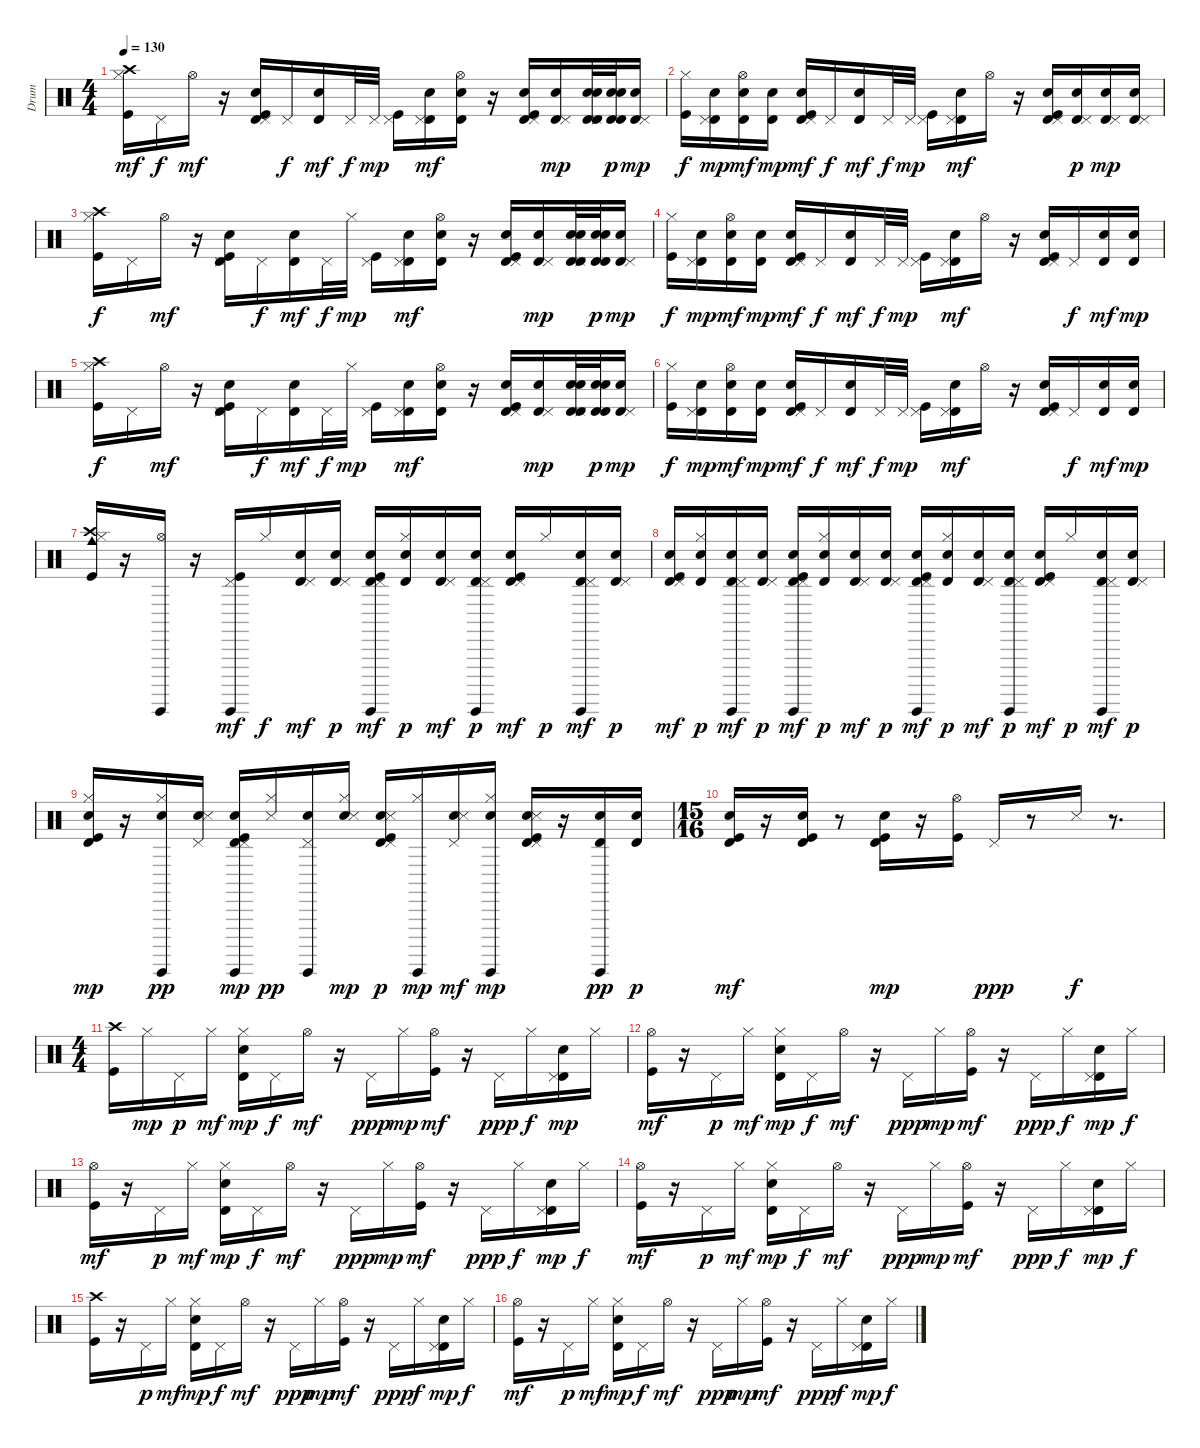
\track ("Drum" "Drum") {instrument percussion}
\staff {score}
\articulation defaults
\ts (4 4)
\tempo 130
\clef neutral
\ks c
("Crash high (hit)" "Hi-Hat (closed)" "Kick (hit)").16{dy mf} "Pedal Hi-Hat (hit)".16{dy f} "Hi-Hat (open)".16{dy mf} r.16 ("Timbale high (hit)" "Electric Snare (hit)" "Pedal Hi-Hat (hit)" "Kick (hit)").16 "Pedal Hi-Hat (hit)".16{dy f} ("Timbale high (hit)" "Electric Snare (hit)").16{dy mf} "Pedal Hi-Hat (hit)".32{dy f} "Pedal Hi-Hat (hit)".32{dy mp} ("Pedal Hi-Hat (hit)" "Kick (hit)").16 ("Timbale high (hit)" "Electric Snare (hit)" "Pedal Hi-Hat (hit)").16{dy mf} ("Timbale high (hit)" "Electric Snare (hit)" "Hi-Hat (open)").16 r.16 ("Timbale high (hit)" "Electric Snare (hit)" "Pedal Hi-Hat (hit)" "Kick (hit)").16 ("Timbale high (hit)" "Electric Snare (hit)" "Pedal Hi-Hat (hit)").16{dy mp} ("Timbale high (hit)" "Electric Snare (hit)" "Pedal Hi-Hat (hit)" "Timbale high (hit)" "Electric Snare (hit)").32 ("Timbale high (hit)" "Electric Snare (hit)" "Timbale high (hit)" "Electric Snare (hit)").32{dy p} ("Timbale high (hit)" "Electric Snare (hit)" "Pedal Hi-Hat (hit)").16{dy mp} |
("Hi-Hat (closed)" "Kick (hit)").16{dy f} ("Timbale high (hit)" "Electric Snare (hit)" "Pedal Hi-Hat (hit)").16{dy mp} ("Timbale high (hit)" "Electric Snare (hit)" "Hi-Hat (open)").16{dy mf} ("Timbale high (hit)" "Electric Snare (hit)").16{dy mp} ("Timbale high (hit)" "Electric Snare (hit)" "Pedal Hi-Hat (hit)" "Kick (hit)").16{dy mf} "Pedal Hi-Hat (hit)".16{dy f} ("Timbale high (hit)" "Electric Snare (hit)").16{dy mf} "Pedal Hi-Hat (hit)".32{dy f} "Pedal Hi-Hat (hit)".32{dy mp} ("Pedal Hi-Hat (hit)" "Kick (hit)").16 ("Timbale high (hit)" "Electric Snare (hit)" "Pedal Hi-Hat (hit)").16{dy mf} "Hi-Hat (open)".16 r.16 ("Timbale high (hit)" "Electric Snare (hit)" "Pedal Hi-Hat (hit)" "Kick (hit)").16 ("Timbale high (hit)" "Electric Snare (hit)" "Pedal Hi-Hat (hit)").16{dy p} ("Timbale high (hit)" "Electric Snare (hit)" "Pedal Hi-Hat (hit)").16{dy mp} ("Timbale high (hit)" "Electric Snare (hit)" "Pedal Hi-Hat (hit)").16 |
("Crash high (hit)" "Hi-Hat (closed)" "Kick (hit)").16{dy f} "Pedal Hi-Hat (hit)".16 "Hi-Hat (open)".16{dy mf} r.16 ("Timbale high (hit)" "Electric Snare (hit)" "Pedal Hi-Hat (hit)" "Kick (hit)").16 "Pedal Hi-Hat (hit)".16{dy f} ("Timbale high (hit)" "Electric Snare (hit)").16{dy mf} "Pedal Hi-Hat (hit)".32{dy f} "Hi-Hat (closed)".32{dy mp} ("Pedal Hi-Hat (hit)" "Kick (hit)").16 ("Timbale high (hit)" "Electric Snare (hit)" "Pedal Hi-Hat (hit)").16{dy mf} ("Timbale high (hit)" "Electric Snare (hit)" "Hi-Hat (open)").16 r.16 ("Timbale high (hit)" "Electric Snare (hit)" "Pedal Hi-Hat (hit)" "Kick (hit)").16 ("Timbale high (hit)" "Electric Snare (hit)" "Pedal Hi-Hat (hit)").16{dy mp} ("Timbale high (hit)" "Electric Snare (hit)" "Pedal Hi-Hat (hit)" "Timbale high (hit)" "Electric Snare (hit)").32 ("Timbale high (hit)" "Electric Snare (hit)" "Timbale high (hit)" "Electric Snare (hit)").32{dy p} ("Timbale high (hit)" "Electric Snare (hit)" "Pedal Hi-Hat (hit)").16{dy mp} |
("Hi-Hat (closed)" "Kick (hit)").16{dy f} ("Timbale high (hit)" "Electric Snare (hit)" "Pedal Hi-Hat (hit)").16{dy mp} ("Timbale high (hit)" "Electric Snare (hit)" "Hi-Hat (open)").16{dy mf} ("Timbale high (hit)" "Electric Snare (hit)").16{dy mp} ("Timbale high (hit)" "Electric Snare (hit)" "Pedal Hi-Hat (hit)" "Kick (hit)").16{dy mf} "Pedal Hi-Hat (hit)".16{dy f} ("Timbale high (hit)" "Electric Snare (hit)").16{dy mf} "Pedal Hi-Hat (hit)".32{dy f} "Pedal Hi-Hat (hit)".32{dy mp} ("Pedal Hi-Hat (hit)" "Kick (hit)").16 ("Timbale high (hit)" "Electric Snare (hit)" "Pedal Hi-Hat (hit)").16{dy mf} "Hi-Hat (open)".16 r.16 ("Timbale high (hit)" "Electric Snare (hit)" "Pedal Hi-Hat (hit)" "Kick (hit)").16 "Pedal Hi-Hat (hit)".16{dy f} ("Timbale high (hit)" "Electric Snare (hit)").16{dy mf} ("Timbale high (hit)" "Electric Snare (hit)").16{dy mp} |
("Crash high (hit)" "Hi-Hat (closed)" "Kick (hit)").16{dy f} "Pedal Hi-Hat (hit)".16 "Hi-Hat (open)".16{dy mf} r.16 ("Timbale high (hit)" "Electric Snare (hit)" "Pedal Hi-Hat (hit)" "Kick (hit)").16 "Pedal Hi-Hat (hit)".16{dy f} ("Timbale high (hit)" "Electric Snare (hit)").16{dy mf} "Pedal Hi-Hat (hit)".32{dy f} "Hi-Hat (closed)".32{dy mp} ("Pedal Hi-Hat (hit)" "Kick (hit)").16 ("Timbale high (hit)" "Electric Snare (hit)" "Pedal Hi-Hat (hit)").16{dy mf} ("Timbale high (hit)" "Electric Snare (hit)" "Hi-Hat (open)").16 r.16 ("Timbale high (hit)" "Electric Snare (hit)" "Pedal Hi-Hat (hit)" "Kick (hit)").16 ("Timbale high (hit)" "Electric Snare (hit)" "Pedal Hi-Hat (hit)").16{dy mp} ("Timbale high (hit)" "Electric Snare (hit)" "Pedal Hi-Hat (hit)" "Timbale high (hit)" "Electric Snare (hit)").32 ("Timbale high (hit)" "Electric Snare (hit)" "Timbale high (hit)" "Electric Snare (hit)").32{dy p} ("Timbale high (hit)" "Electric Snare (hit)" "Pedal Hi-Hat (hit)").16{dy mp} |
("Hi-Hat (closed)" "Kick (hit)").16{dy f} ("Timbale high (hit)" "Electric Snare (hit)" "Pedal Hi-Hat (hit)").16{dy mp} ("Timbale high (hit)" "Electric Snare (hit)" "Hi-Hat (open)").16{dy mf} ("Timbale high (hit)" "Electric Snare (hit)").16{dy mp} ("Timbale high (hit)" "Electric Snare (hit)" "Pedal Hi-Hat (hit)" "Kick (hit)").16{dy mf} "Pedal Hi-Hat (hit)".16{dy f} ("Timbale high (hit)" "Electric Snare (hit)").16{dy mf} "Pedal Hi-Hat (hit)".32{dy f} "Pedal Hi-Hat (hit)".32{dy mp} ("Pedal Hi-Hat (hit)" "Kick (hit)").16 ("Timbale high (hit)" "Electric Snare (hit)" "Pedal Hi-Hat (hit)").16{dy mf} "Hi-Hat (open)".16 r.16 ("Timbale high (hit)" "Electric Snare (hit)" "Pedal Hi-Hat (hit)" "Kick (hit)").16 "Pedal Hi-Hat (hit)".16{dy f} ("Timbale high (hit)" "Electric Snare (hit)").16{dy mf} ("Timbale high (hit)" "Electric Snare (hit)").16{dy mp} |
("Crash high (hit)" "Cowbell medium (hit)" "Hi-Hat (closed)" "Kick (hit)").16 r.16 ("Guiro (hit)" "Hi-Hat (open)").16 r.16 ("Guiro (hit)" "Pedal Hi-Hat (hit)" "Kick (hit)").16{dy mf} "Hi-Hat (closed)".16{dy f} ("Timbale high (hit)" "Electric Snare (hit)" "Pedal Hi-Hat (hit)").16{dy mf} ("Timbale high (hit)" "Electric Snare (hit)" "Pedal Hi-Hat (hit)").16{dy p} ("Timbale high (hit)" "Electric Snare (hit)" "Guiro (hit)" "Pedal Hi-Hat (hit)" "Kick (hit)").16{dy mf} ("Timbale high (hit)" "Electric Snare (hit)" "Hi-Hat (closed)").16{dy p} ("Timbale high (hit)" "Electric Snare (hit)" "Pedal Hi-Hat (hit)").16{dy mf} ("Timbale high (hit)" "Electric Snare (hit)" "Guiro (hit)" "Pedal Hi-Hat (hit)").16{dy p} ("Timbale high (hit)" "Electric Snare (hit)" "Pedal Hi-Hat (hit)" "Kick (hit)").16{dy mf} "Hi-Hat (closed)".16{dy p} ("Timbale high (hit)" "Electric Snare (hit)" "Guiro (hit)" "Pedal Hi-Hat (hit)").16{dy mf} ("Timbale high (hit)" "Electric Snare (hit)" "Pedal Hi-Hat (hit)").16{dy p} |
("Timbale high (hit)" "Electric Snare (hit)" "Pedal Hi-Hat (hit)" "Kick (hit)").16{dy mf} ("Timbale high (hit)" "Electric Snare (hit)" "Hi-Hat (closed)").16{dy p} ("Timbale high (hit)" "Electric Snare (hit)" "Guiro (hit)" "Pedal Hi-Hat (hit)").16{dy mf} ("Timbale high (hit)" "Electric Snare (hit)" "Pedal Hi-Hat (hit)").16{dy p} ("Timbale high (hit)" "Electric Snare (hit)" "Guiro (hit)" "Pedal Hi-Hat (hit)" "Kick (hit)").16{dy mf} ("Timbale high (hit)" "Electric Snare (hit)" "Hi-Hat (closed)").16{dy p} ("Timbale high (hit)" "Electric Snare (hit)" "Pedal Hi-Hat (hit)").16{dy mf} ("Timbale high (hit)" "Electric Snare (hit)" "Pedal Hi-Hat (hit)").16{dy p} ("Timbale high (hit)" "Electric Snare (hit)" "Guiro (hit)" "Pedal Hi-Hat (hit)" "Kick (hit)").16{dy mf} ("Timbale high (hit)" "Electric Snare (hit)" "Hi-Hat (closed)").16{dy p} ("Timbale high (hit)" "Electric Snare (hit)" "Pedal Hi-Hat (hit)").16{dy mf} ("Timbale high (hit)" "Electric Snare (hit)" "Guiro (hit)" "Pedal Hi-Hat (hit)").16{dy p} ("Timbale high (hit)" "Electric Snare (hit)" "Pedal Hi-Hat (hit)" "Kick (hit)").16{dy mf} "Hi-Hat (closed)".16{dy p} ("Timbale high (hit)" "Electric Snare (hit)" "Guiro (hit)" "Pedal Hi-Hat (hit)").16{dy mf} ("Timbale high (hit)" "Electric Snare (hit)" "Pedal Hi-Hat (hit)").16{dy p} |
("Timbale high (hit)" "Electric Snare (hit)" "Hi-Hat (closed)" "Kick (hit)").16{dy mp} r.16 ("Electric Snare (hit)" "Guiro (hit)" "Hi-Hat (closed)").16{dy pp} ("Electric Snare (hit)" "Metronome (hit)" "Pedal Hi-Hat (hit)").16 ("Timbale high (hit)" "Electric Snare (hit)" "Guiro (hit)" "Pedal Hi-Hat (hit)" "Kick (hit)").16{dy mp} ("Metronome (hit)" "Hi-Hat (closed)").16{dy pp} ("Electric Snare (hit)" "Guiro (hit)" "Pedal Hi-Hat (hit)").16 ("Electric Snare (hit)" "Metronome (hit)" "Hi-Hat (closed)").16{dy mp} ("Timbale high (hit)" "Electric Snare (hit)" "Metronome (hit)" "Pedal Hi-Hat (hit)" "Kick (hit)").16{dy p} ("Guiro (hit)" "Hi-Hat (closed)").16{dy mp} ("Electric Snare (hit)" "Metronome (hit)" "Pedal Hi-Hat (hit)").16{dy mf} ("Electric Snare (hit)" "Guiro (hit)" "Hi-Hat (closed)").16{dy mp} ("Timbale high (hit)" "Electric Snare (hit)" "Metronome (hit)" "Pedal Hi-Hat (hit)" "Kick (hit)").16 r.16 ("Timbale high (hit)" "Electric Snare (hit)" "Guiro (hit)").16{dy pp} ("Timbale high (hit)" "Electric Snare (hit)").16{dy p} |
\ts (15 16)
("Timbale high (hit)" "Electric Snare (hit)" "Kick (hit)").16{dy mf} r.16 ("Timbale high (hit)" "Electric Snare (hit)" "Kick (hit)").16 r.8 ("Electric Snare (hit)" "Timbale high (hit)" "Kick (hit)").16{dy mp} r.16 ("Hi-Hat (open)" "Kick (hit)").16 "Pedal Hi-Hat (hit)".16{dy ppp} r.8 "Snare (side stick) 3".16{dy f} r.8{d} |
\ts (4 4)
("Crash high (hit)" "Kick (hit)").16 "Hi-Hat (closed)".16{dy mp} "Pedal Hi-Hat (hit)".16{dy p} "Hi-Hat (closed)".16{dy mf} ("Timbale high (hit)" "Electric Snare (hit)" "Hi-Hat (closed)").16{dy mp} "Pedal Hi-Hat (hit)".16{dy f} "Hi-Hat (open)".16{dy mf} r.16 "Pedal Hi-Hat (hit)".16{dy ppp} "Hi-Hat (closed)".16{dy mp} ("Hi-Hat (open)" "Kick (hit)").16{dy mf} r.16 "Pedal Hi-Hat (hit)".16{dy ppp} "Hi-Hat (closed)".16{dy f} ("Timbale high (hit)" "Electric Snare (hit)" "Pedal Hi-Hat (hit)").16{dy mp} "Hi-Hat (closed)".16 |
("Hi-Hat (open)" "Kick (hit)").16{dy mf} r.16 "Pedal Hi-Hat (hit)".16{dy p} "Hi-Hat (closed)".16{dy mf} ("Timbale high (hit)" "Electric Snare (hit)" "Hi-Hat (closed)").16{dy mp} "Pedal Hi-Hat (hit)".16{dy f} "Hi-Hat (open)".16{dy mf} r.16 "Pedal Hi-Hat (hit)".16{dy ppp} "Hi-Hat (closed)".16{dy mp} ("Hi-Hat (open)" "Kick (hit)").16{dy mf} r.16 "Pedal Hi-Hat (hit)".16{dy ppp} "Hi-Hat (closed)".16{dy f} ("Timbale high (hit)" "Electric Snare (hit)" "Pedal Hi-Hat (hit)").16{dy mp} "Hi-Hat (closed)".16{dy f} |
("Hi-Hat (open)" "Kick (hit)").16{dy mf} r.16 "Pedal Hi-Hat (hit)".16{dy p} "Hi-Hat (closed)".16{dy mf} ("Timbale high (hit)" "Electric Snare (hit)" "Hi-Hat (closed)").16{dy mp} "Pedal Hi-Hat (hit)".16{dy f} "Hi-Hat (open)".16{dy mf} r.16 "Pedal Hi-Hat (hit)".16{dy ppp} "Hi-Hat (closed)".16{dy mp} ("Hi-Hat (open)" "Kick (hit)").16{dy mf} r.16 "Pedal Hi-Hat (hit)".16{dy ppp} "Hi-Hat (closed)".16{dy f} ("Timbale high (hit)" "Electric Snare (hit)" "Pedal Hi-Hat (hit)").16{dy mp} "Hi-Hat (closed)".16{dy f} |
("Hi-Hat (open)" "Kick (hit)").16{dy mf} r.16 "Pedal Hi-Hat (hit)".16{dy p} "Hi-Hat (closed)".16{dy mf} ("Timbale high (hit)" "Electric Snare (hit)" "Hi-Hat (closed)").16{dy mp} "Pedal Hi-Hat (hit)".16{dy f} "Hi-Hat (open)".16{dy mf} r.16 "Pedal Hi-Hat (hit)".16{dy ppp} "Hi-Hat (closed)".16{dy mp} ("Hi-Hat (open)" "Kick (hit)").16{dy mf} r.16 "Pedal Hi-Hat (hit)".16{dy ppp} "Hi-Hat (closed)".16{dy f} ("Timbale high (hit)" "Electric Snare (hit)" "Pedal Hi-Hat (hit)").16{dy mp} "Hi-Hat (closed)".16{dy f} |
("Crash high (hit)" "Kick (hit)").16 r.16 "Pedal Hi-Hat (hit)".16{dy p} "Hi-Hat (closed)".16{dy mf} ("Timbale high (hit)" "Electric Snare (hit)" "Hi-Hat (closed)").16{dy mp} "Pedal Hi-Hat (hit)".16{dy f} "Hi-Hat (open)".16{dy mf} r.16 "Pedal Hi-Hat (hit)".16{dy ppp} "Hi-Hat (closed)".16{dy mp} ("Hi-Hat (open)" "Kick (hit)").16{dy mf} r.16 "Pedal Hi-Hat (hit)".16{dy ppp} "Hi-Hat (closed)".16{dy f} ("Timbale high (hit)" "Electric Snare (hit)" "Pedal Hi-Hat (hit)").16{dy mp} "Hi-Hat (closed)".16{dy f} |
("Hi-Hat (open)" "Kick (hit)").16{dy mf} r.16 "Pedal Hi-Hat (hit)".16{dy p} "Hi-Hat (closed)".16{dy mf} ("Timbale high (hit)" "Electric Snare (hit)" "Hi-Hat (closed)").16{dy mp} "Pedal Hi-Hat (hit)".16{dy f} "Hi-Hat (open)".16{dy mf} r.16 "Pedal Hi-Hat (hit)".16{dy ppp} "Hi-Hat (closed)".16{dy mp} ("Hi-Hat (open)" "Kick (hit)").16{dy mf} r.16 "Pedal Hi-Hat (hit)".16{dy ppp} "Hi-Hat (closed)".16{dy f} ("Timbale high (hit)" "Electric Snare (hit)" "Pedal Hi-Hat (hit)").16{dy mp} "Hi-Hat (closed)".16{dy f}
